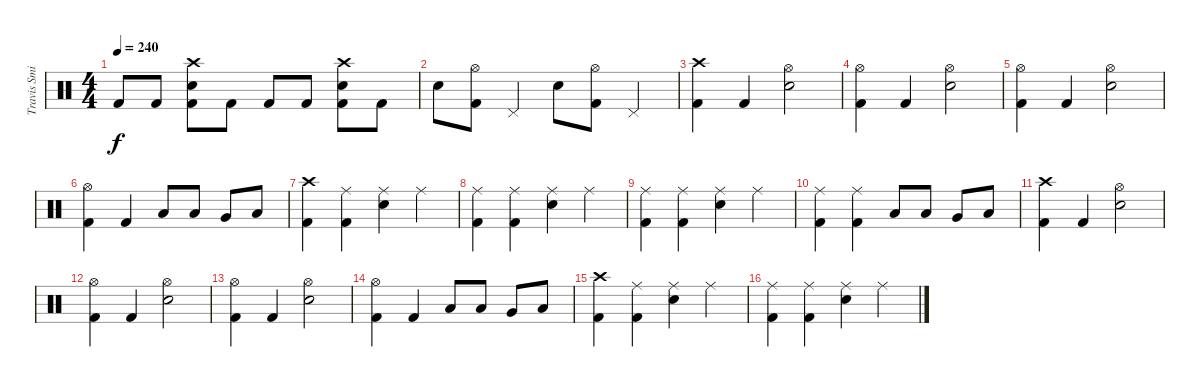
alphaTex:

\track ("Travis Smith (Drums)" "Travis Smi") {instrument percussion}
\staff {score}
\articulation defaults
\ts (4 4)
\tempo 240
\clef neutral
\ks c "Kick (hit) 2".8{dy f} "Kick (hit) 2".8
("Kick (hit) 2" "Snare (hit) 2" "Crash high (hit)").8 "Kick (hit) 2".8 "Kick (hit) 2".8 "Kick (hit) 2".8 ("Kick (hit) 2" "Snare (hit) 2" "Crash high (hit)").8 "Kick (hit) 2".8 |
"Snare (hit) 2".8 ("Kick (hit) 2" "Hi-Hat (open)").8 "Pedal Hi-Hat (hit)".4 "Snare (hit) 2".8 ("Kick (hit) 2" "Hi-Hat (open)").8 "Pedal Hi-Hat (hit)".4 |
("Kick (hit) 2" "Crash high (hit)").4 "Kick (hit) 2".4 ("Snare (hit) 2" "Hi-Hat (open)").2 |
("Kick (hit) 2" "Hi-Hat (open)").4 "Kick (hit) 2".4 ("Snare (hit) 2" "Hi-Hat (open)").2 |
("Kick (hit) 2" "Hi-Hat (open)").4 "Kick (hit) 2".4 ("Snare (hit) 2" "Hi-Hat (open)").2 |
("Kick (hit) 2" "Hi-Hat (open)").4 "Kick (hit) 2".4 "Low Tom (hit)".8 "Low Tom (hit)".8 "Very Low Tom (hit)".8 "Low Floor Tom (hit)".8 |
("Kick (hit) 2" "Crash high (hit)").4 ("Kick (hit) 2" "Ride (middle)").4 ("Snare (hit) 2" "Ride (middle)").4 "Ride (middle)".4 |
("Kick (hit) 2" "Ride (middle)").4 ("Kick (hit) 2" "Ride (middle)").4 ("Snare (hit) 2" "Ride (middle)").4 "Ride (middle)".4 |
("Kick (hit) 2" "Ride (middle)").4 ("Kick (hit) 2" "Ride (middle)").4 ("Snare (hit) 2" "Ride (middle)").4 "Ride (middle)".4 |
("Kick (hit) 2" "Ride (middle)").4 ("Kick (hit) 2" "Ride (middle)").4 "Low Tom (hit)".8 "Low Tom (hit)".8 "Very Low Tom (hit)".8 "Low Floor Tom (hit)".8 |
("Kick (hit) 2" "Crash high (hit)").4 "Kick (hit) 2".4 ("Snare (hit) 2" "Hi-Hat (open)").2 |
("Kick (hit) 2" "Hi-Hat (open)").4 "Kick (hit) 2".4 ("Snare (hit) 2" "Hi-Hat (open)").2 |
("Kick (hit) 2" "Hi-Hat (open)").4 "Kick (hit) 2".4 ("Snare (hit) 2" "Hi-Hat (open)").2 |
("Kick (hit) 2" "Hi-Hat (open)").4 "Kick (hit) 2".4 "Low Tom (hit)".8 "Low Tom (hit)".8 "Very Low Tom (hit)".8 "Low Floor Tom (hit)".8 |
("Kick (hit) 2" "Crash high (hit)").4 ("Kick (hit) 2" "Ride (middle)").4 ("Snare (hit) 2" "Ride (middle)").4 "Ride (middle)".4 |
("Kick (hit) 2" "Ride (middle)").4 ("Kick (hit) 2" "Ride (middle)").4 ("Snare (hit) 2" "Ride (middle)").4 "Ride (middle)".4
